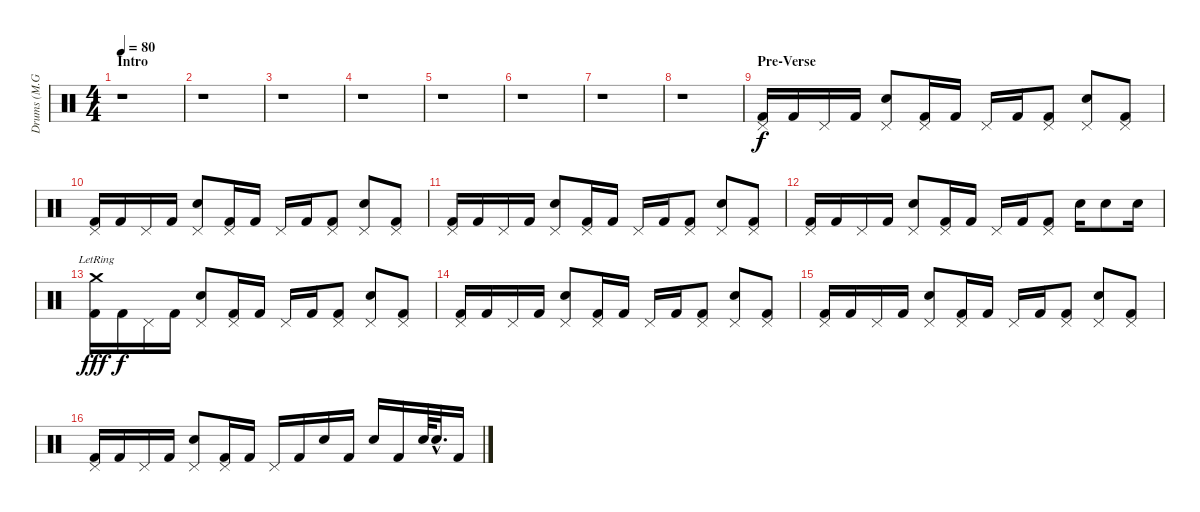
\track ("Drums (M.Grosskopf)" "Drums (M.G") {instrument percussion}
\staff {score}
\articulation defaults
\ts (4 4)
\section ("" "Intro")
\tempo 80
\clef neutral
\ks c
r.1{dy f} |
r.1 |
r.1 |
r.1 |
r.1 |
r.1 |
r.1 |
r.1 |
\section ("" "Pre-Verse")
("Pedal Hi-Hat (hit)" "Kick (hit) 2").16 "Kick (hit) 2".16 "Pedal Hi-Hat (hit)".16 "Kick (hit) 2".16 ("Pedal Hi-Hat (hit)" "Electric Snare (hit)").8 ("Pedal Hi-Hat (hit)" "Kick (hit) 2").16 "Kick (hit) 2".16 "Pedal Hi-Hat (hit)".16 "Kick (hit) 2".16 ("Pedal Hi-Hat (hit)" "Kick (hit) 2").8 ("Pedal Hi-Hat (hit)" "Electric Snare (hit)").8 ("Pedal Hi-Hat (hit)" "Kick (hit) 2").8 |
("Pedal Hi-Hat (hit)" "Kick (hit) 2").16 "Kick (hit) 2".16 "Pedal Hi-Hat (hit)".16 "Kick (hit) 2".16 ("Pedal Hi-Hat (hit)" "Electric Snare (hit)").8 ("Pedal Hi-Hat (hit)" "Kick (hit) 2").16 "Kick (hit) 2".16 "Pedal Hi-Hat (hit)".16 "Kick (hit) 2".16 ("Pedal Hi-Hat (hit)" "Kick (hit) 2").8 ("Pedal Hi-Hat (hit)" "Electric Snare (hit)").8 ("Pedal Hi-Hat (hit)" "Kick (hit) 2").8 |
("Pedal Hi-Hat (hit)" "Kick (hit) 2").16 "Kick (hit) 2".16 "Pedal Hi-Hat (hit)".16 "Kick (hit) 2".16 ("Pedal Hi-Hat (hit)" "Electric Snare (hit)").8 ("Pedal Hi-Hat (hit)" "Kick (hit) 2").16 "Kick (hit) 2".16 "Pedal Hi-Hat (hit)".16 "Kick (hit) 2".16 ("Pedal Hi-Hat (hit)" "Kick (hit) 2").8 ("Pedal Hi-Hat (hit)" "Electric Snare (hit)").8 ("Pedal Hi-Hat (hit)" "Kick (hit) 2").8 |
("Pedal Hi-Hat (hit)" "Kick (hit) 2").16 "Kick (hit) 2".16 "Pedal Hi-Hat (hit)".16 "Kick (hit) 2".16 ("Pedal Hi-Hat (hit)" "Electric Snare (hit)").8 ("Pedal Hi-Hat (hit)" "Kick (hit) 2").16 "Kick (hit) 2".16 "Pedal Hi-Hat (hit)".16 "Kick (hit) 2".16 ("Pedal Hi-Hat (hit)" "Kick (hit) 2").8 "Electric Snare (hit)".16 "Electric Snare (hit)".8 "Electric Snare (hit)".16 |
("Crash medium (hit)"{lr} "Kick (hit) 2").16{dy fff} "Kick (hit) 2".16{dy f} "Pedal Hi-Hat (hit)".16 "Kick (hit) 2".16 ("Pedal Hi-Hat (hit)" "Electric Snare (hit)").8 ("Pedal Hi-Hat (hit)" "Kick (hit) 2").16 "Kick (hit) 2".16 "Pedal Hi-Hat (hit)".16 "Kick (hit) 2".16 ("Pedal Hi-Hat (hit)" "Kick (hit) 2").8 ("Pedal Hi-Hat (hit)" "Electric Snare (hit)").8 ("Pedal Hi-Hat (hit)" "Kick (hit) 2").8 |
("Pedal Hi-Hat (hit)" "Kick (hit) 2").16 "Kick (hit) 2".16 "Pedal Hi-Hat (hit)".16 "Kick (hit) 2".16 ("Pedal Hi-Hat (hit)" "Electric Snare (hit)").8 ("Pedal Hi-Hat (hit)" "Kick (hit) 2").16 "Kick (hit) 2".16 "Pedal Hi-Hat (hit)".16 "Kick (hit) 2".16 ("Pedal Hi-Hat (hit)" "Kick (hit) 2").8 ("Pedal Hi-Hat (hit)" "Electric Snare (hit)").8 ("Pedal Hi-Hat (hit)" "Kick (hit) 2").8 |
("Pedal Hi-Hat (hit)" "Kick (hit) 2").16 "Kick (hit) 2".16 "Pedal Hi-Hat (hit)".16 "Kick (hit) 2".16 ("Pedal Hi-Hat (hit)" "Electric Snare (hit)").8 ("Pedal Hi-Hat (hit)" "Kick (hit) 2").16 "Kick (hit) 2".16 "Pedal Hi-Hat (hit)".16 "Kick (hit) 2".16 ("Pedal Hi-Hat (hit)" "Kick (hit) 2").8 ("Pedal Hi-Hat (hit)" "Electric Snare (hit)").8 ("Pedal Hi-Hat (hit)" "Kick (hit) 2").8 |
("Pedal Hi-Hat (hit)" "Kick (hit) 2").16 "Kick (hit) 2".16 "Pedal Hi-Hat (hit)".16 "Kick (hit) 2".16 ("Pedal Hi-Hat (hit)" "Electric Snare (hit)").8 ("Pedal Hi-Hat (hit)" "Kick (hit) 2").16 "Kick (hit) 2".16 "Pedal Hi-Hat (hit)".16 "Kick (hit) 2".16 "Electric Snare (hit)".16 "Kick (hit) 2".16 "Electric Snare (hit)".16 "Kick (hit) 2".16 "Electric Snare (hit)".64 "Electric Snare (hit)"{hac}.32{d} "Kick (hit) 2".16
